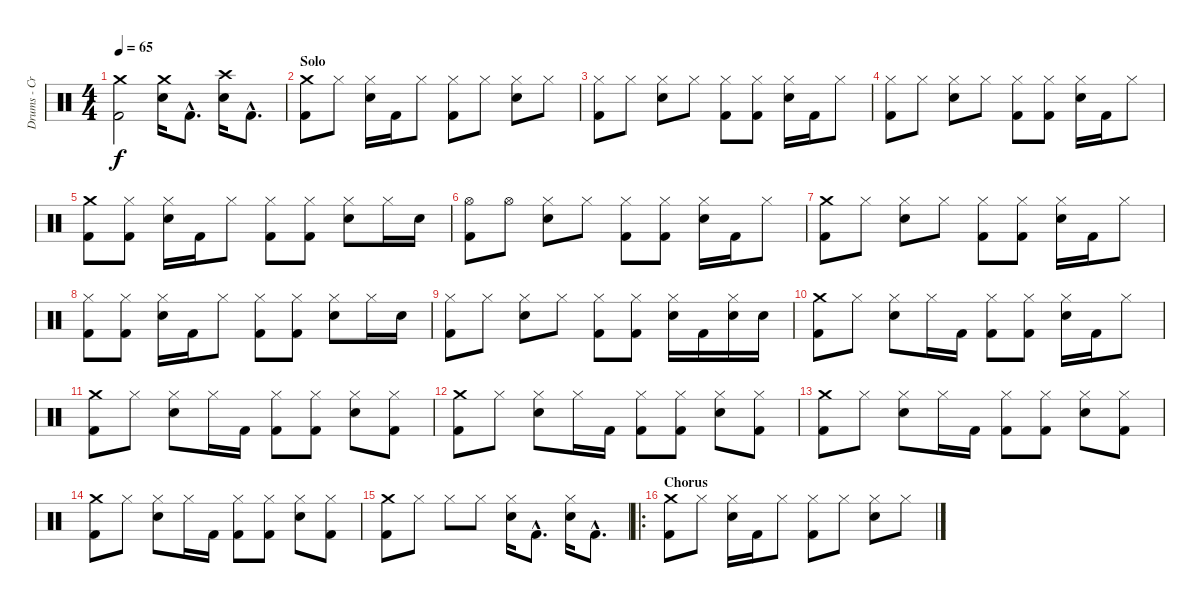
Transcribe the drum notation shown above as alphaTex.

\track ("Drums - Craig" "Drums - Cr") {instrument percussion}
\staff {score}
\articulation defaults
\ts (4 4)
\tempo 65
\clef neutral
\ks c
("Crash medium (hit)" "Kick (hit) 2").2{dy f} ("Crash medium (hit)" "Snare (hit) 2").16 "Kick (hit) 2"{hac}.8{d} ("Crash high (hit)" "Snare (hit) 2").16 "Kick (hit) 2"{hac}.8{d} |
\section ("" "Solo")
("Crash medium (hit)" "Kick (hit) 2").8 "Hi-Hat (closed)".8 ("Hi-Hat (closed)" "Snare (hit) 2").16 "Kick (hit) 2".16 "Hi-Hat (closed)".8 ("Hi-Hat (closed)" "Kick (hit) 2").8 "Hi-Hat (closed)".8 ("Hi-Hat (closed)" "Snare (hit) 2").8 "Hi-Hat (closed)".8 |
("Hi-Hat (closed)" "Kick (hit) 2").8 "Hi-Hat (closed)".8 ("Hi-Hat (closed)" "Snare (hit) 2").8 "Hi-Hat (closed)".8 ("Hi-Hat (closed)" "Kick (hit) 2").8 ("Hi-Hat (closed)" "Kick (hit) 2").8 ("Hi-Hat (closed)" "Snare (hit) 2").16 "Kick (hit) 2".16 "Hi-Hat (closed)".8 |
("Hi-Hat (closed)" "Kick (hit) 2").8 "Hi-Hat (closed)".8 ("Hi-Hat (closed)" "Snare (hit) 2").8 "Hi-Hat (closed)".8 ("Hi-Hat (closed)" "Kick (hit) 2").8 ("Hi-Hat (closed)" "Kick (hit) 2").8 ("Hi-Hat (closed)" "Snare (hit) 2").16 "Kick (hit) 2".16 "Hi-Hat (closed)".8 |
("Crash medium (hit)" "Kick (hit) 2").8 ("Hi-Hat (closed)" "Kick (hit) 2").8 ("Hi-Hat (closed)" "Snare (hit) 2").16 "Kick (hit) 2".16 "Hi-Hat (closed)".8 ("Hi-Hat (closed)" "Kick (hit) 2").8 ("Hi-Hat (closed)" "Kick (hit) 2").8 ("Hi-Hat (closed)" "Snare (hit) 2").8 "Hi-Hat (closed)".16 "Snare (hit) 2".16 |
("Hi-Hat (open)" "Kick (hit) 2").8 "Hi-Hat (open)".8 ("Hi-Hat (closed)" "Snare (hit) 2").8 "Hi-Hat (closed)".8 ("Hi-Hat (closed)" "Kick (hit) 2").8 ("Hi-Hat (closed)" "Kick (hit) 2").8 ("Hi-Hat (closed)" "Snare (hit) 2").16 "Kick (hit) 2".16 "Hi-Hat (closed)".8 |
("Crash medium (hit)" "Kick (hit) 2").8 "Hi-Hat (closed)".8 ("Hi-Hat (closed)" "Snare (hit) 2").8 "Hi-Hat (closed)".8 ("Hi-Hat (closed)" "Kick (hit) 2").8 ("Hi-Hat (closed)" "Kick (hit) 2").8 ("Hi-Hat (closed)" "Snare (hit) 2").16 "Kick (hit) 2".16 "Hi-Hat (closed)".8 |
("Hi-Hat (closed)" "Kick (hit) 2").8 ("Hi-Hat (closed)" "Kick (hit) 2").8 ("Hi-Hat (closed)" "Snare (hit) 2").16 "Kick (hit) 2".16 "Hi-Hat (closed)".8 ("Hi-Hat (closed)" "Kick (hit) 2").8 ("Hi-Hat (closed)" "Kick (hit) 2").8 ("Hi-Hat (closed)" "Snare (hit) 2").8 "Hi-Hat (closed)".16 "Snare (hit) 2".16 |
("Hi-Hat (closed)" "Kick (hit) 2").8 "Hi-Hat (closed)".8 ("Hi-Hat (closed)" "Snare (hit) 2").8 "Hi-Hat (closed)".8 ("Hi-Hat (closed)" "Kick (hit) 2").8 ("Hi-Hat (closed)" "Kick (hit) 2").8 ("Hi-Hat (closed)" "Snare (hit) 2").16 "Kick (hit) 2".16 ("Hi-Hat (closed)" "Snare (hit) 2").16 "Snare (hit) 2".16 |
("Crash medium (hit)" "Kick (hit) 2").8 "Hi-Hat (closed)".8 ("Hi-Hat (closed)" "Snare (hit) 2").8 "Hi-Hat (closed)".16 "Kick (hit) 2".16 ("Hi-Hat (closed)" "Kick (hit) 2").8 ("Hi-Hat (closed)" "Kick (hit) 2").8 ("Hi-Hat (closed)" "Snare (hit) 2").16 "Kick (hit) 2".16 "Hi-Hat (closed)".8 |
("Crash medium (hit)" "Kick (hit) 2").8 "Hi-Hat (closed)".8 ("Hi-Hat (closed)" "Snare (hit) 2").8 "Hi-Hat (closed)".16 "Kick (hit) 2".16 ("Hi-Hat (closed)" "Kick (hit) 2").8 ("Hi-Hat (closed)" "Kick (hit) 2").8 ("Hi-Hat (closed)" "Snare (hit) 2").8 ("Hi-Hat (closed)" "Kick (hit) 2").8 |
("Crash medium (hit)" "Kick (hit) 2").8 "Hi-Hat (closed)".8 ("Hi-Hat (closed)" "Snare (hit) 2").8 "Hi-Hat (closed)".16 "Kick (hit) 2".16 ("Hi-Hat (closed)" "Kick (hit) 2").8 ("Hi-Hat (closed)" "Kick (hit) 2").8 ("Hi-Hat (closed)" "Snare (hit) 2").8 ("Hi-Hat (closed)" "Kick (hit) 2").8 |
("Crash medium (hit)" "Kick (hit) 2").8 "Hi-Hat (closed)".8 ("Hi-Hat (closed)" "Snare (hit) 2").8 "Hi-Hat (closed)".16 "Kick (hit) 2".16 ("Hi-Hat (closed)" "Kick (hit) 2").8 ("Hi-Hat (closed)" "Kick (hit) 2").8 ("Hi-Hat (closed)" "Snare (hit) 2").8 ("Hi-Hat (closed)" "Kick (hit) 2").8 |
("Crash medium (hit)" "Kick (hit) 2").8 "Hi-Hat (closed)".8 ("Hi-Hat (closed)" "Snare (hit) 2").8 "Hi-Hat (closed)".16 "Kick (hit) 2".16 ("Hi-Hat (closed)" "Kick (hit) 2").8 ("Hi-Hat (closed)" "Kick (hit) 2").8 ("Hi-Hat (closed)" "Snare (hit) 2").8 ("Hi-Hat (closed)" "Kick (hit) 2").8 |
("Crash medium (hit)" "Kick (hit) 2").8 "Hi-Hat (closed)".8 "Hi-Hat (closed)".8 "Hi-Hat (closed)".8 ("Hi-Hat (closed)" "Snare (hit) 2").16 "Kick (hit) 2"{hac}.8{d} ("Hi-Hat (closed)" "Snare (hit) 2").16 "Kick (hit) 2"{hac}.8{d} |
\ro
\section ("" "Chorus")
("Crash medium (hit)" "Kick (hit) 2").8 "Hi-Hat (closed)".8 ("Hi-Hat (closed)" "Snare (hit) 2").16 "Kick (hit) 2".16 "Hi-Hat (closed)".8 ("Hi-Hat (closed)" "Kick (hit) 2").8 "Hi-Hat (closed)".8 ("Hi-Hat (closed)" "Snare (hit) 2").8 "Hi-Hat (closed)".8
